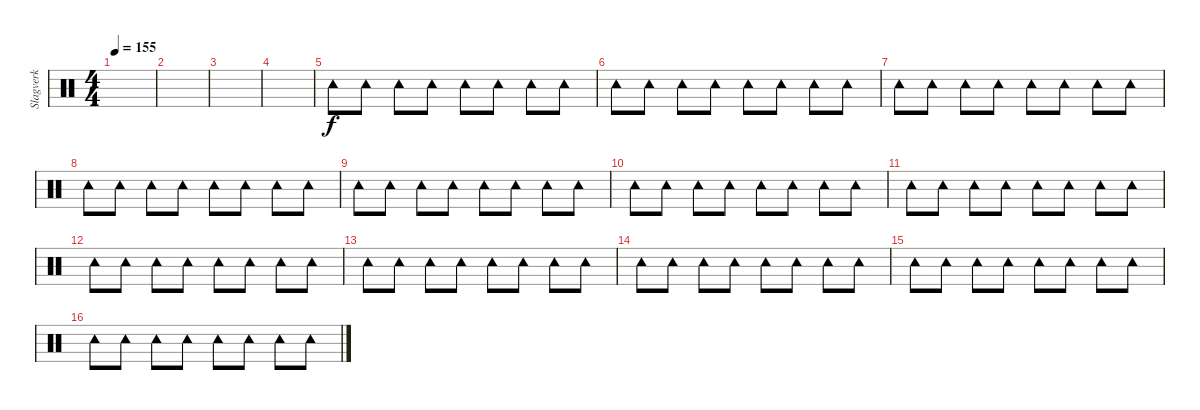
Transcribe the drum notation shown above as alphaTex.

\track ("Slagverk" "Slagverk") {instrument percussion}
\staff {score}
\articulation defaults
\ts (4 4)
\tempo 155
\clef neutral
\ks c
|
|
|
|
"Tambourine (hit)".8 "Tambourine (hit)".8 "Tambourine (hit)".8 "Tambourine (hit)".8 "Tambourine (hit)".8 "Tambourine (hit)".8 "Tambourine (hit)".8 "Tambourine (hit)".8 |
"Tambourine (hit)".8 "Tambourine (hit)".8 "Tambourine (hit)".8 "Tambourine (hit)".8 "Tambourine (hit)".8 "Tambourine (hit)".8 "Tambourine (hit)".8 "Tambourine (hit)".8 |
"Tambourine (hit)".8 "Tambourine (hit)".8 "Tambourine (hit)".8 "Tambourine (hit)".8 "Tambourine (hit)".8 "Tambourine (hit)".8 "Tambourine (hit)".8 "Tambourine (hit)".8 |
"Tambourine (hit)".8 "Tambourine (hit)".8 "Tambourine (hit)".8 "Tambourine (hit)".8 "Tambourine (hit)".8 "Tambourine (hit)".8 "Tambourine (hit)".8 "Tambourine (hit)".8 |
"Tambourine (hit)".8 "Tambourine (hit)".8 "Tambourine (hit)".8 "Tambourine (hit)".8 "Tambourine (hit)".8 "Tambourine (hit)".8 "Tambourine (hit)".8 "Tambourine (hit)".8 |
"Tambourine (hit)".8 "Tambourine (hit)".8 "Tambourine (hit)".8 "Tambourine (hit)".8 "Tambourine (hit)".8 "Tambourine (hit)".8 "Tambourine (hit)".8 "Tambourine (hit)".8 |
"Tambourine (hit)".8 "Tambourine (hit)".8 "Tambourine (hit)".8 "Tambourine (hit)".8 "Tambourine (hit)".8 "Tambourine (hit)".8 "Tambourine (hit)".8 "Tambourine (hit)".8 |
"Tambourine (hit)".8 "Tambourine (hit)".8 "Tambourine (hit)".8 "Tambourine (hit)".8 "Tambourine (hit)".8 "Tambourine (hit)".8 "Tambourine (hit)".8 "Tambourine (hit)".8 |
"Tambourine (hit)".8 "Tambourine (hit)".8 "Tambourine (hit)".8 "Tambourine (hit)".8 "Tambourine (hit)".8 "Tambourine (hit)".8 "Tambourine (hit)".8 "Tambourine (hit)".8 |
"Tambourine (hit)".8 "Tambourine (hit)".8 "Tambourine (hit)".8 "Tambourine (hit)".8 "Tambourine (hit)".8 "Tambourine (hit)".8 "Tambourine (hit)".8 "Tambourine (hit)".8 |
"Tambourine (hit)".8 "Tambourine (hit)".8 "Tambourine (hit)".8 "Tambourine (hit)".8 "Tambourine (hit)".8 "Tambourine (hit)".8 "Tambourine (hit)".8 "Tambourine (hit)".8 |
"Tambourine (hit)".8 "Tambourine (hit)".8 "Tambourine (hit)".8 "Tambourine (hit)".8 "Tambourine (hit)".8 "Tambourine (hit)".8 "Tambourine (hit)".8 "Tambourine (hit)".8
